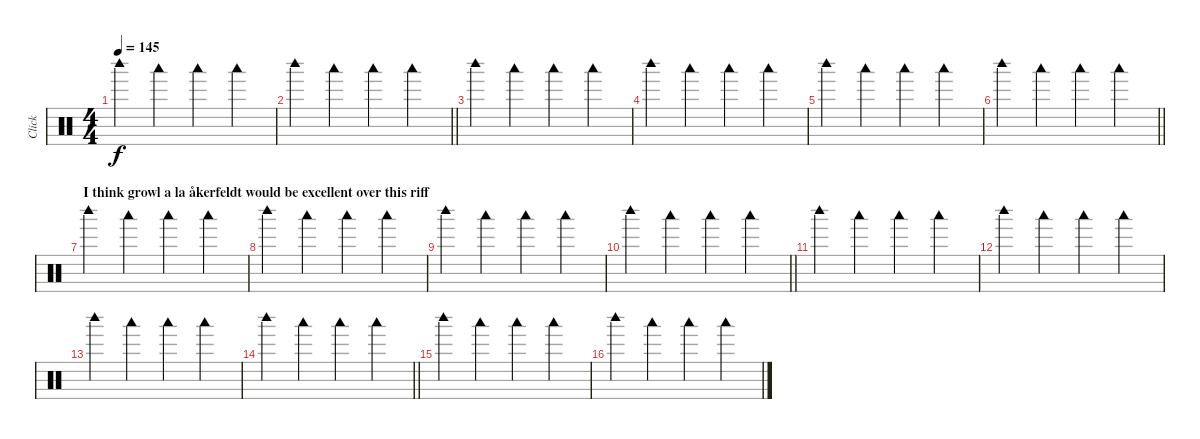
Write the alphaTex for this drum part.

\track ("Click" "Click") {mute instrument percussion}
\staff {score}
\articulation defaults
\ts (4 4)
\tempo 145
\clef neutral
\ks c "Woodblock high (hit)".4{dy f} "Woodblock low (hit)".4 "Woodblock low (hit)".4 "Woodblock low (hit)".4
|
\barLineRight lightlight "Woodblock high (hit)".4 "Woodblock low (hit)".4 "Woodblock low (hit)".4 "Woodblock low (hit)".4
|
"Woodblock high (hit)".4 "Woodblock low (hit)".4 "Woodblock low (hit)".4 "Woodblock low (hit)".4 |
"Woodblock high (hit)".4 "Woodblock low (hit)".4 "Woodblock low (hit)".4 "Woodblock low (hit)".4 |
"Woodblock high (hit)".4 "Woodblock low (hit)".4 "Woodblock low (hit)".4 "Woodblock low (hit)".4 |
\barLineRight lightlight "Woodblock high (hit)".4 "Woodblock low (hit)".4 "Woodblock low (hit)".4 "Woodblock low (hit)".4
|
\section ("" "I think growl a la åkerfeldt would be excellent over this riff")
"Woodblock high (hit)".4 "Woodblock low (hit)".4 "Woodblock low (hit)".4 "Woodblock low (hit)".4 |
"Woodblock high (hit)".4 "Woodblock low (hit)".4 "Woodblock low (hit)".4 "Woodblock low (hit)".4 |
"Woodblock high (hit)".4 "Woodblock low (hit)".4 "Woodblock low (hit)".4 "Woodblock low (hit)".4 |
\barLineRight lightlight "Woodblock high (hit)".4 "Woodblock low (hit)".4 "Woodblock low (hit)".4 "Woodblock low (hit)".4
|
"Woodblock high (hit)".4 "Woodblock low (hit)".4 "Woodblock low (hit)".4 "Woodblock low (hit)".4 |
"Woodblock high (hit)".4 "Woodblock low (hit)".4 "Woodblock low (hit)".4 "Woodblock low (hit)".4 |
"Woodblock high (hit)".4 "Woodblock low (hit)".4 "Woodblock low (hit)".4 "Woodblock low (hit)".4 |
\barLineRight lightlight "Woodblock high (hit)".4 "Woodblock low (hit)".4 "Woodblock low (hit)".4 "Woodblock low (hit)".4
|
"Woodblock high (hit)".4 "Woodblock low (hit)".4 "Woodblock low (hit)".4 "Woodblock low (hit)".4 |
"Woodblock high (hit)".4 "Woodblock low (hit)".4 "Woodblock low (hit)".4 "Woodblock low (hit)".4
